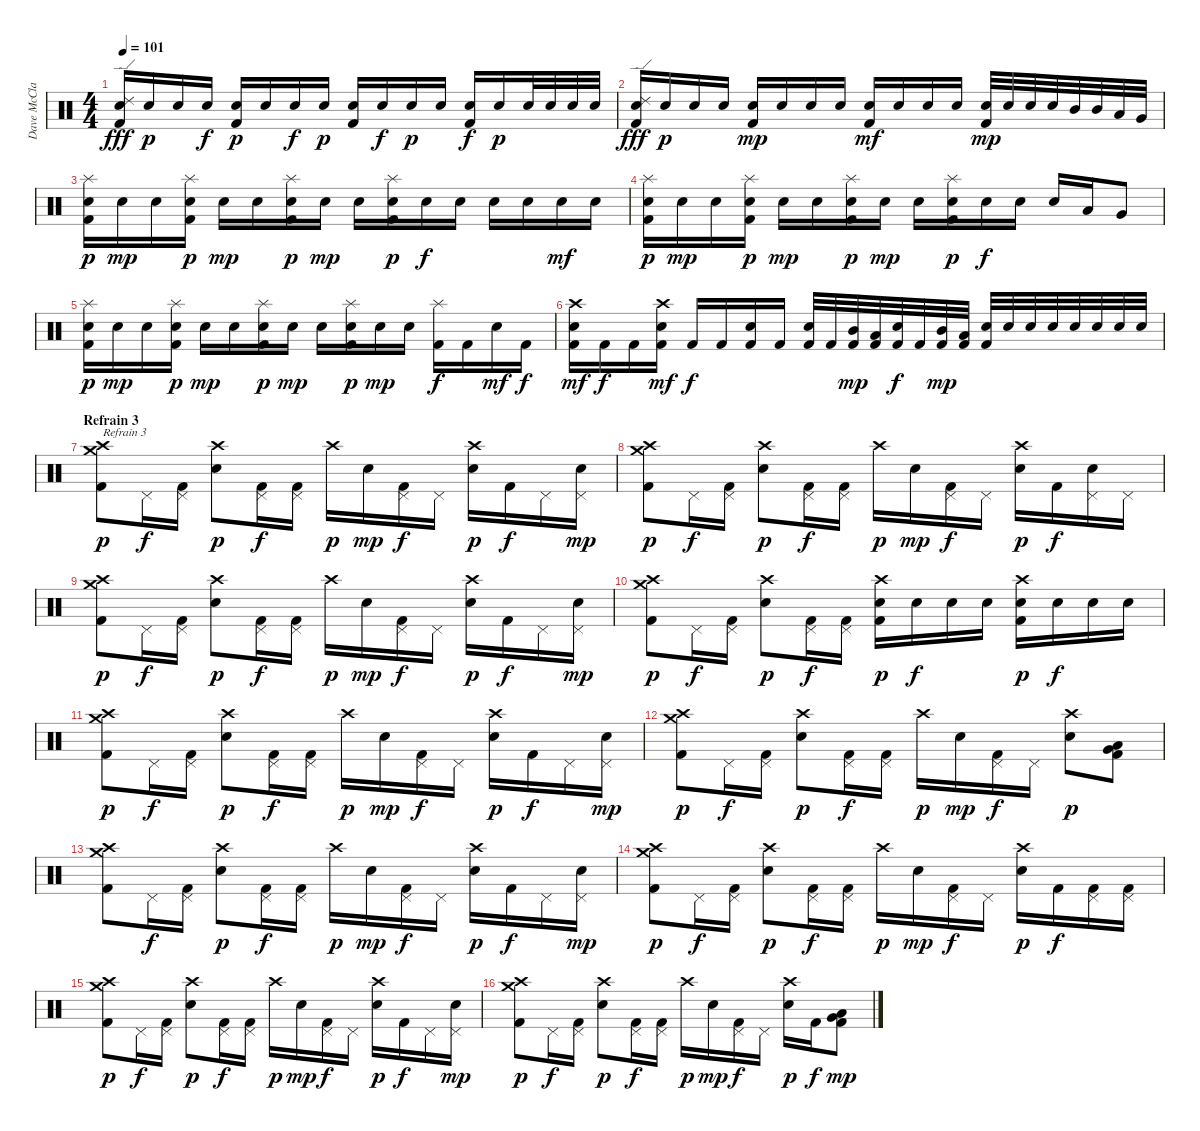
\track ("Dave McClain" "Dave McCla") {instrument percussion}
\staff {score}
\articulation defaults
\ts (4 4)
\tempo 101
\clef neutral
\ks c
("Electric Snare (hit)" "Ride (edge) 2" "Kick (hit) 2").16{dy fff} "Electric Snare (hit)".16{dy p} "Electric Snare (hit)".16 "Electric Snare (hit)".16{dy f} ("Electric Snare (hit)" "Kick (hit) 2").16{dy p} "Electric Snare (hit)".16 "Electric Snare (hit)".16{dy f} "Electric Snare (hit)".16{dy p} ("Electric Snare (hit)" "Kick (hit) 2").16 "Electric Snare (hit)".16{dy f} "Electric Snare (hit)".16{dy p} "Electric Snare (hit)".16 ("Electric Snare (hit)" "Kick (hit) 2").16{dy f} "Electric Snare (hit)".16{dy p} "Electric Snare (hit)".32 "Electric Snare (hit)".32 "Electric Snare (hit)".32 "Electric Snare (hit)".32 |
("Electric Snare (hit)" "Ride (edge) 2" "Kick (hit) 2").16{dy fff} "Electric Snare (hit)".16{dy p} "Electric Snare (hit)".16 "Electric Snare (hit)".16 ("Electric Snare (hit)" "Kick (hit) 2").16{dy mp} "Electric Snare (hit)".16 "Electric Snare (hit)".16 "Electric Snare (hit)".16 ("Electric Snare (hit)" "Kick (hit) 2").16{dy mf} "Electric Snare (hit)".16 "Electric Snare (hit)".16 "Electric Snare (hit)".16 ("Electric Snare (hit)" "Kick (hit) 2").32{dy mp} "Electric Snare (hit)".32 "Electric Snare (hit)".32 "Electric Snare (hit)".32 "Mid Tom (hit)".32 "Mid Tom (hit)".32 "Low Tom (hit)".32 "Very Low Tom (hit)".32 |
("Splash (hit)" "Electric Snare (hit)" "Kick (hit) 2").16{dy p} "Electric Snare (hit)".16{dy mp} "Electric Snare (hit)".16 ("Splash (hit)" "Electric Snare (hit)" "Kick (hit) 2").16{dy p} "Electric Snare (hit)".16{dy mp} "Electric Snare (hit)".16 ("Splash (hit)" "Electric Snare (hit)" "Kick (hit) 2").16{dy p} "Electric Snare (hit)".16{dy mp} "Electric Snare (hit)".16 ("Splash (hit)" "Electric Snare (hit)" "Kick (hit) 2").16{dy p} "Electric Snare (hit)".16{dy f} "Electric Snare (hit)".16 "Electric Snare (hit)".16 "Electric Snare (hit)".16 "Electric Snare (hit)".16{dy mf} "Electric Snare (hit)".16 |
("Splash (hit)" "Electric Snare (hit)" "Kick (hit) 2").16{dy p} "Electric Snare (hit)".16{dy mp} "Electric Snare (hit)".16 ("Splash (hit)" "Electric Snare (hit)" "Kick (hit) 2").16{dy p} "Electric Snare (hit)".16{dy mp} "Electric Snare (hit)".16 ("Splash (hit)" "Electric Snare (hit)" "Kick (hit) 2").16{dy p} "Electric Snare (hit)".16{dy mp} "Electric Snare (hit)".16 ("Splash (hit)" "Electric Snare (hit)" "Kick (hit) 2").16{dy p} "Electric Snare (hit)".16{dy f} "Electric Snare (hit)".16 "Electric Snare (hit)".16 "Low Tom (hit)".16 "Very Low Tom (hit)".8 |
("Splash (hit)" "Electric Snare (hit)" "Kick (hit) 2").16{dy p} "Electric Snare (hit)".16{dy mp} "Electric Snare (hit)".16 ("Splash (hit)" "Electric Snare (hit)" "Kick (hit) 2").16{dy p} "Electric Snare (hit)".16{dy mp} "Electric Snare (hit)".16 ("Splash (hit)" "Electric Snare (hit)" "Kick (hit) 2").16{dy p} "Electric Snare (hit)".16{dy mp} "Electric Snare (hit)".16 ("Splash (hit)" "Electric Snare (hit)" "Kick (hit) 2").16{dy p} "Electric Snare (hit)".16{dy mp} "Electric Snare (hit)".16 ("Splash (hit)" "Kick (hit) 2").16{dy f} "Kick (hit) 2".16 "Electric Snare (hit)".16{dy mf} "Kick (hit) 2".16{dy f} |
("Crash high (hit)" "Electric Snare (hit)" "Kick (hit) 2").16{dy mf} "Kick (hit) 2".16{dy f} "Kick (hit) 2".16 ("Crash high (hit)" "Electric Snare (hit)" "Kick (hit) 2").16{dy mf} "Kick (hit) 2".16{dy f} "Kick (hit) 2".16 ("Electric Snare (hit)" "Kick (hit) 2").16 "Kick (hit) 2".16 ("Electric Snare (hit)" "Kick (hit) 2").32 "Kick (hit) 2".32 ("Mid Tom (hit)" "Kick (hit) 2").32{dy mp} ("Low Tom (hit)" "Kick (hit) 2").32 ("Electric Snare (hit)" "Kick (hit) 2").32{dy f} "Kick (hit) 2".32 ("Mid Tom (hit)" "Kick (hit) 2").32{dy mp} ("Low Tom (hit)" "Kick (hit) 2").32 ("Electric Snare (hit)" "Kick (hit) 2").32 "Electric Snare (hit)".32 "Electric Snare (hit)".32 "Electric Snare (hit)".32 "Electric Snare (hit)".32 "Electric Snare (hit)".32 "Electric Snare (hit)".32 "Electric Snare (hit)".32 |
\section ("" "Refrain 3")
("Crash medium (hit)" "Crash high (hit)" "Kick (hit) 2").8{txt "Refrain 3" dy p} "Pedal Hi-Hat (hit)".16{dy f} ("Pedal Hi-Hat (hit)" "Kick (hit) 2").16 ("Crash high (hit)" "Electric Snare (hit)").8{dy p} ("Pedal Hi-Hat (hit)" "Kick (hit) 2").16{dy f} ("Pedal Hi-Hat (hit)" "Kick (hit) 2").16 "Crash high (hit)".16{dy p} "Electric Snare (hit)".16{dy mp} ("Pedal Hi-Hat (hit)" "Kick (hit) 2").16{dy f} "Pedal Hi-Hat (hit)".16 ("Crash high (hit)" "Electric Snare (hit)").16{dy p} "Kick (hit) 2".16{dy f} "Pedal Hi-Hat (hit)".16 ("Electric Snare (hit)" "Pedal Hi-Hat (hit)").16{dy mp} |
("Crash medium (hit)" "Crash high (hit)" "Kick (hit) 2").8{dy p} "Pedal Hi-Hat (hit)".16{dy f} ("Pedal Hi-Hat (hit)" "Kick (hit) 2").16 ("Crash high (hit)" "Electric Snare (hit)").8{dy p} ("Pedal Hi-Hat (hit)" "Kick (hit) 2").16{dy f} ("Pedal Hi-Hat (hit)" "Kick (hit) 2").16 "Crash high (hit)".16{dy p} "Electric Snare (hit)".16{dy mp} ("Pedal Hi-Hat (hit)" "Kick (hit) 2").16{dy f} "Pedal Hi-Hat (hit)".16 ("Crash high (hit)" "Electric Snare (hit)").16{dy p} "Kick (hit) 2".16{dy f} ("Electric Snare (hit)" "Pedal Hi-Hat (hit)").16 "Pedal Hi-Hat (hit)".16 |
("Crash medium (hit)" "Crash high (hit)" "Kick (hit) 2").8{dy p} "Pedal Hi-Hat (hit)".16{dy f} ("Pedal Hi-Hat (hit)" "Kick (hit) 2").16 ("Crash high (hit)" "Electric Snare (hit)").8{dy p} ("Pedal Hi-Hat (hit)" "Kick (hit) 2").16{dy f} ("Pedal Hi-Hat (hit)" "Kick (hit) 2").16 "Crash high (hit)".16{dy p} "Electric Snare (hit)".16{dy mp} ("Pedal Hi-Hat (hit)" "Kick (hit) 2").16{dy f} "Pedal Hi-Hat (hit)".16 ("Crash high (hit)" "Electric Snare (hit)").16{dy p} "Kick (hit) 2".16{dy f} "Pedal Hi-Hat (hit)".16 ("Electric Snare (hit)" "Pedal Hi-Hat (hit)").16{dy mp} |
("Crash medium (hit)" "Crash high (hit)" "Kick (hit) 2").8{dy p} "Pedal Hi-Hat (hit)".16{dy f} ("Pedal Hi-Hat (hit)" "Kick (hit) 2").16 ("Crash high (hit)" "Electric Snare (hit)").8{dy p} ("Pedal Hi-Hat (hit)" "Kick (hit) 2").16{dy f} ("Pedal Hi-Hat (hit)" "Kick (hit) 2").16 ("Crash high (hit)" "Electric Snare (hit)" "Kick (hit) 2").16{dy p} "Electric Snare (hit)".16{dy f} "Electric Snare (hit)".16 "Electric Snare (hit)".16 ("Crash high (hit)" "Electric Snare (hit)" "Kick (hit) 2").16{dy p} "Electric Snare (hit)".16{dy f} "Electric Snare (hit)".16 "Electric Snare (hit)".16 |
("Crash medium (hit)" "Crash high (hit)" "Kick (hit) 2").8{dy p} "Pedal Hi-Hat (hit)".16{dy f} ("Pedal Hi-Hat (hit)" "Kick (hit) 2").16 ("Crash high (hit)" "Electric Snare (hit)").8{dy p} ("Pedal Hi-Hat (hit)" "Kick (hit) 2").16{dy f} ("Pedal Hi-Hat (hit)" "Kick (hit) 2").16 "Crash high (hit)".16{dy p} "Electric Snare (hit)".16{dy mp} ("Pedal Hi-Hat (hit)" "Kick (hit) 2").16{dy f} "Pedal Hi-Hat (hit)".16 ("Crash high (hit)" "Electric Snare (hit)").16{dy p} "Kick (hit) 2".16{dy f} "Pedal Hi-Hat (hit)".16 ("Electric Snare (hit)" "Pedal Hi-Hat (hit)").16{dy mp} |
("Crash medium (hit)" "Crash high (hit)" "Kick (hit) 2").8{dy p} "Pedal Hi-Hat (hit)".16{dy f} ("Pedal Hi-Hat (hit)" "Kick (hit) 2").16 ("Crash high (hit)" "Electric Snare (hit)").8{dy p} ("Pedal Hi-Hat (hit)" "Kick (hit) 2").16{dy f} ("Pedal Hi-Hat (hit)" "Kick (hit) 2").16 "Crash high (hit)".16{dy p} "Electric Snare (hit)".16{dy mp} ("Pedal Hi-Hat (hit)" "Kick (hit) 2").16{dy f} "Pedal Hi-Hat (hit)".16 ("Crash high (hit)" "Electric Snare (hit)").8{dy p} ("Very Low Tom (hit)" "Low Tom (hit)" "Kick (hit) 2").8 |
("Crash medium (hit)" "Crash high (hit)" "Kick (hit) 2").8 "Pedal Hi-Hat (hit)".16{dy f} ("Pedal Hi-Hat (hit)" "Kick (hit) 2").16 ("Crash high (hit)" "Electric Snare (hit)").8{dy p} ("Pedal Hi-Hat (hit)" "Kick (hit) 2").16{dy f} ("Pedal Hi-Hat (hit)" "Kick (hit) 2").16 "Crash high (hit)".16{dy p} "Electric Snare (hit)".16{dy mp} ("Pedal Hi-Hat (hit)" "Kick (hit) 2").16{dy f} "Pedal Hi-Hat (hit)".16 ("Crash high (hit)" "Electric Snare (hit)").16{dy p} "Kick (hit) 2".16{dy f} "Pedal Hi-Hat (hit)".16 ("Electric Snare (hit)" "Pedal Hi-Hat (hit)").16{dy mp} |
("Crash medium (hit)" "Crash high (hit)" "Kick (hit) 2").8{dy p} "Pedal Hi-Hat (hit)".16{dy f} ("Pedal Hi-Hat (hit)" "Kick (hit) 2").16 ("Crash high (hit)" "Electric Snare (hit)").8{dy p} ("Pedal Hi-Hat (hit)" "Kick (hit) 2").16{dy f} ("Pedal Hi-Hat (hit)" "Kick (hit) 2").16 "Crash high (hit)".16{dy p} "Electric Snare (hit)".16{dy mp} ("Pedal Hi-Hat (hit)" "Kick (hit) 2").16{dy f} "Pedal Hi-Hat (hit)".16 ("Crash high (hit)" "Electric Snare (hit)").16{dy p} "Kick (hit) 2".16{dy f} ("Pedal Hi-Hat (hit)" "Kick (hit) 2").16 ("Pedal Hi-Hat (hit)" "Kick (hit) 2").16 |
("Crash medium (hit)" "Crash high (hit)" "Kick (hit) 2").8{dy p} "Pedal Hi-Hat (hit)".16{dy f} ("Pedal Hi-Hat (hit)" "Kick (hit) 2").16 ("Crash high (hit)" "Electric Snare (hit)").8{dy p} ("Pedal Hi-Hat (hit)" "Kick (hit) 2").16{dy f} ("Pedal Hi-Hat (hit)" "Kick (hit) 2").16 "Crash high (hit)".16{dy p} "Electric Snare (hit)".16{dy mp} ("Pedal Hi-Hat (hit)" "Kick (hit) 2").16{dy f} "Pedal Hi-Hat (hit)".16 ("Crash high (hit)" "Electric Snare (hit)").16{dy p} "Kick (hit) 2".16{dy f} "Pedal Hi-Hat (hit)".16 ("Electric Snare (hit)" "Pedal Hi-Hat (hit)").16{dy mp} |
("Crash medium (hit)" "Crash high (hit)" "Kick (hit) 2").8{dy p} "Pedal Hi-Hat (hit)".16{dy f} ("Pedal Hi-Hat (hit)" "Kick (hit) 2").16 ("Crash high (hit)" "Electric Snare (hit)").8{dy p} ("Pedal Hi-Hat (hit)" "Kick (hit) 2").16{dy f} ("Pedal Hi-Hat (hit)" "Kick (hit) 2").16 "Crash high (hit)".16{dy p} "Electric Snare (hit)".16{dy mp} ("Pedal Hi-Hat (hit)" "Kick (hit) 2").16{dy f} "Pedal Hi-Hat (hit)".16 ("Crash high (hit)" "Electric Snare (hit)").16{dy p} "Kick (hit) 2".16{dy f} ("Very Low Tom (hit)" "Low Tom (hit)" "Kick (hit) 2").8{dy mp}
